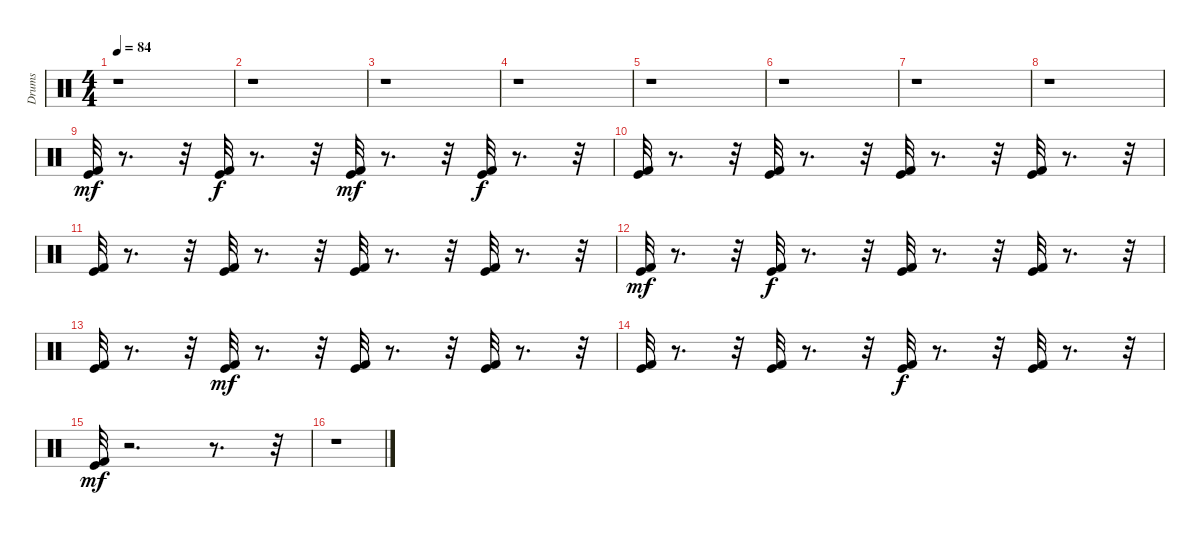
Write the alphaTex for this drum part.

\track ("Drums" "Drums") {instrument percussion}
\staff {score}
\articulation defaults
\ts (4 4)
\tempo 84
\clef neutral
\ks c
r.1{dy mf} |
r.1 |
r.1 |
r.1 |
r.1 |
r.1 |
r.1 |
r.1 |
("Kick (hit) 2" "Kick (hit)").32 r.8{d} r.32 ("Kick (hit) 2" "Kick (hit)").32{dy f} r.8{d} r.32 ("Kick (hit) 2" "Kick (hit)").32{dy mf} r.8{d} r.32 ("Kick (hit) 2" "Kick (hit)").32{dy f} r.8{d} r.32 |
("Kick (hit) 2" "Kick (hit)").32 r.8{d} r.32 ("Kick (hit) 2" "Kick (hit)").32 r.8{d} r.32 ("Kick (hit) 2" "Kick (hit)").32 r.8{d} r.32 ("Kick (hit) 2" "Kick (hit)").32 r.8{d} r.32 |
("Kick (hit) 2" "Kick (hit)").32 r.8{d} r.32 ("Kick (hit) 2" "Kick (hit)").32 r.8{d} r.32 ("Kick (hit) 2" "Kick (hit)").32 r.8{d} r.32 ("Kick (hit) 2" "Kick (hit)").32 r.8{d} r.32 |
("Kick (hit) 2" "Kick (hit)").32{dy mf} r.8{d} r.32 ("Kick (hit) 2" "Kick (hit)").32{dy f} r.8{d} r.32 ("Kick (hit) 2" "Kick (hit)").32 r.8{d} r.32 ("Kick (hit) 2" "Kick (hit)").32 r.8{d} r.32 |
("Kick (hit) 2" "Kick (hit)").32 r.8{d} r.32 ("Kick (hit) 2" "Kick (hit)").32{dy mf} r.8{d} r.32 ("Kick (hit) 2" "Kick (hit)").32 r.8{d} r.32 ("Kick (hit) 2" "Kick (hit)").32 r.8{d} r.32 |
("Kick (hit) 2" "Kick (hit)").32 r.8{d} r.32 ("Kick (hit) 2" "Kick (hit)").32 r.8{d} r.32 ("Kick (hit) 2" "Kick (hit)").32{dy f} r.8{d} r.32 ("Kick (hit) 2" "Kick (hit)").32 r.8{d} r.32 |
("Kick (hit) 2" "Kick (hit)").32{dy mf} r.2{d} r.8{d} r.32 |
r.1
